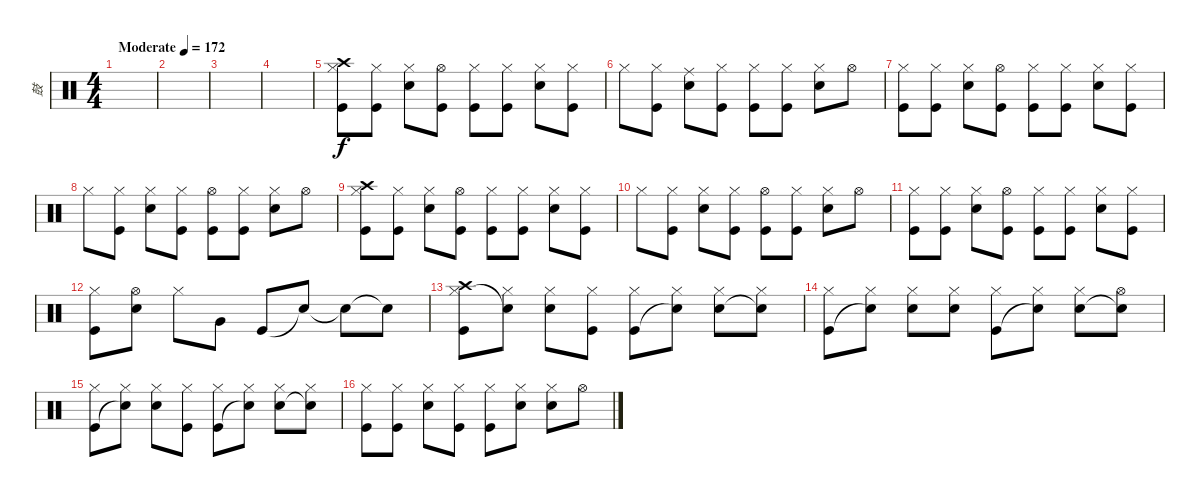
\track ("鼓" "鼓") {instrument percussion}
\staff {score}
\articulation defaults
\ts (4 4)
\tempo (172 "Moderate")
\clef neutral
\ks c
|
|
|
|
("Crash high (hit)" "Hi-Hat (closed)" "Kick (hit)").8 ("Hi-Hat (closed)" "Kick (hit)").8 ("Hi-Hat (closed)" "Snare (hit) 2").8 ("Hi-Hat (open)" "Kick (hit)").8 ("Hi-Hat (closed)" "Kick (hit)").8 ("Hi-Hat (closed)" "Kick (hit)").8 ("Hi-Hat (closed)" "Snare (hit) 2").8 ("Hi-Hat (closed)" "Kick (hit)").8 |
"Hi-Hat (closed)".8 ("Hi-Hat (closed)" "Kick (hit)").8 ("Ride (middle)" "Snare (hit) 2").8 ("Hi-Hat (closed)" "Kick (hit)").8 ("Hi-Hat (closed)" "Kick (hit)").8 ("Hi-Hat (closed)" "Kick (hit)").8 ("Hi-Hat (closed)" "Snare (hit) 2").8 "Hi-Hat (open)".8 |
("Hi-Hat (closed)" "Kick (hit)").8 ("Hi-Hat (closed)" "Kick (hit)").8 ("Hi-Hat (closed)" "Snare (hit) 2").8 ("Hi-Hat (open)" "Kick (hit)").8 ("Hi-Hat (closed)" "Kick (hit)").8 ("Hi-Hat (closed)" "Kick (hit)").8 ("Hi-Hat (closed)" "Snare (hit) 2").8 ("Hi-Hat (closed)" "Kick (hit)").8 |
"Hi-Hat (closed)".8 ("Hi-Hat (closed)" "Kick (hit)").8 ("Hi-Hat (closed)" "Snare (hit) 2").8 ("Hi-Hat (closed)" "Kick (hit)").8 ("Hi-Hat (open)" "Kick (hit)").8 ("Hi-Hat (closed)" "Kick (hit)").8 ("Hi-Hat (closed)" "Snare (hit) 2").8 "Hi-Hat (open)".8 |
("Crash high (hit)" "Hi-Hat (closed)" "Kick (hit)").8 ("Hi-Hat (closed)" "Kick (hit)").8 ("Hi-Hat (closed)" "Snare (hit) 2").8 ("Hi-Hat (open)" "Kick (hit)").8 ("Hi-Hat (closed)" "Kick (hit)").8 ("Hi-Hat (closed)" "Kick (hit)").8 ("Hi-Hat (closed)" "Snare (hit) 2").8 ("Hi-Hat (closed)" "Kick (hit)").8 |
"Hi-Hat (closed)".8 ("Hi-Hat (closed)" "Kick (hit)").8 ("Hi-Hat (closed)" "Snare (hit) 2").8 ("Hi-Hat (closed)" "Kick (hit)").8 ("Hi-Hat (open)" "Kick (hit)").8 ("Hi-Hat (closed)" "Kick (hit)").8 ("Hi-Hat (closed)" "Snare (hit) 2").8 "Hi-Hat (open)".8 |
("Hi-Hat (closed)" "Kick (hit)").8 ("Hi-Hat (closed)" "Kick (hit)").8 ("Hi-Hat (closed)" "Snare (hit) 2").8 ("Hi-Hat (open)" "Kick (hit)").8 ("Hi-Hat (closed)" "Kick (hit)").8 ("Hi-Hat (closed)" "Kick (hit)").8 ("Hi-Hat (closed)" "Snare (hit) 2").8 ("Hi-Hat (closed)" "Kick (hit)").8 |
("Hi-Hat (closed)" "Kick (hit)").8 ("Hi-Hat (open)" "Snare (hit) 2").8 "Hi-Hat (closed)".8 "Very Low Tom (hit)".8 "Kick (hit)".8 "Snare (hit)"{t}.8 "Snare (hit)"{t}.8 "Snare (hit)"{t}.8 |
("Crash high (hit)" "Hi-Hat (closed)" "Kick (hit)").8 ("Hi-Hat (closed)" "Snare (hit)"{t}).8 ("Hi-Hat (closed)" "Snare (hit) 2").8 ("Hi-Hat (closed)" "Kick (hit)").8 ("Hi-Hat (closed)" "Kick (hit)").8 ("Hi-Hat (closed)" "Snare (hit)"{t}).8 ("Hi-Hat (closed)" "Snare (hit) 2").8 ("Hi-Hat (closed)" "Snare (hit)"{t}).8 |
("Hi-Hat (closed)" "Kick (hit)").8 ("Hi-Hat (closed)" "Snare (hit)"{t}).8 ("Hi-Hat (closed)" "Snare (hit) 2").8 ("Hi-Hat (closed)" "Snare (hit) 2").8 ("Hi-Hat (closed)" "Kick (hit)").8 ("Hi-Hat (closed)" "Snare (hit)"{t}).8 ("Hi-Hat (closed)" "Snare (hit) 2").8 ("Hi-Hat (open)" "Snare (hit)"{t}).8 |
("Hi-Hat (closed)" "Kick (hit)").8 ("Hi-Hat (closed)" "Snare (hit)"{t}).8 ("Hi-Hat (closed)" "Snare (hit) 2").8 ("Hi-Hat (closed)" "Kick (hit)").8 ("Hi-Hat (closed)" "Kick (hit)").8 ("Hi-Hat (closed)" "Snare (hit)"{t}).8 ("Hi-Hat (closed)" "Snare (hit) 2").8 ("Hi-Hat (closed)" "Snare (hit)"{t}).8 |
("Hi-Hat (closed)" "Kick (hit)").8 ("Hi-Hat (closed)" "Kick (hit)").8 ("Hi-Hat (closed)" "Snare (hit) 2").8 ("Hi-Hat (closed)" "Kick (hit)").8 ("Hi-Hat (closed)" "Kick (hit)").8 ("Hi-Hat (closed)" "Snare (hit) 2").8 ("Hi-Hat (closed)" "Snare (hit) 2").8 "Hi-Hat (open)".8
